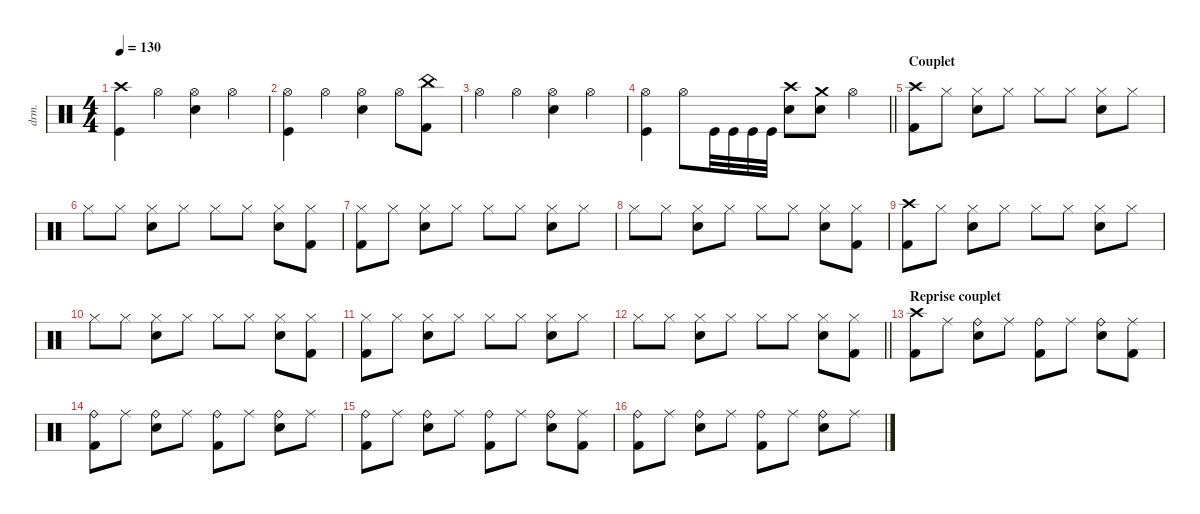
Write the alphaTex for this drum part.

\defaultSystemsLayout 4
\hideDynamics
\bracketExtendMode nobrackets
\otherSystemsTrackNameOrientation horizontal
\track ("Manouche" "drm.") {instrument percussion}
\staff {score}
\articulation defaults
\ts (4 4)
\tempo 130
\clef neutral
\ks c
("Crash high (hit)" "Kick (hit)").4{dy f beam Down} "Hi-Hat (open)".4{beam Down} ("Hi-Hat (open)" "Snare (hit) 2").4{beam Down} "Hi-Hat (open)".4{beam Down} |
("Hi-Hat (open)" "Kick (hit)").4{beam Down} "Hi-Hat (open)".4{beam Down} ("Hi-Hat (open)" "Snare (hit) 2").4{beam Down} "Hi-Hat (open)".8{beam Down} ("China (hit)" "Kick (hit) 2").8{beam Down} |
"Hi-Hat (open)".4{beam Down} "Hi-Hat (open)".4{beam Down} ("Hi-Hat (open)" "Snare (hit) 2").4{beam Down} "Hi-Hat (open)".4{beam Down} |
\barLineRight lightlight
("Hi-Hat (open)" "Kick (hit)").4{beam Down} "Hi-Hat (open)".8{beam Down} "Kick (hit)".32{beam Down} "Kick (hit)".32{beam Down} "Kick (hit)".32{beam Down} "Kick (hit)".32{beam Down} ("Snare (hit) 2" "Crash high (hit)").8{beam Down} ("Crash medium (hit)" "Snare (hit) 2").8{beam Down} "Hi-Hat (open)".4{beam Down} |
\section ("" "Couplet")
("Crash high (hit)" "Kick (hit) 2").8{beam Down} "Hi-Hat (closed)".8{dy mp beam Down} ("Hi-Hat (closed)" "Snare (hit) 2").8{dy f beam Down} "Hi-Hat (closed)".8{dy mp beam Down} "Hi-Hat (closed)".8{dy f beam Down} "Hi-Hat (closed)".8{dy mp beam Down} ("Hi-Hat (closed)" "Snare (hit) 2").8{dy f beam Down} "Hi-Hat (closed)".8{dy mp beam Down} |
"Hi-Hat (closed)".8{dy f beam Down} "Hi-Hat (closed)".8{dy mp beam Down} ("Hi-Hat (closed)" "Snare (hit) 2").8{dy f beam Down} "Hi-Hat (closed)".8{dy mp beam Down} "Hi-Hat (closed)".8{dy f beam Down} "Hi-Hat (closed)".8{dy mp beam Down} ("Hi-Hat (closed)" "Snare (hit) 2").8{dy f beam Down} ("Hi-Hat (closed)" "Kick (hit) 2").8{dy mp beam Down} |
("Hi-Hat (closed)" "Kick (hit) 2").8{beam Down} "Hi-Hat (closed)".8{beam Down} ("Hi-Hat (closed)" "Snare (hit) 2").8{dy f beam Down} "Hi-Hat (closed)".8{dy mp beam Down} "Hi-Hat (closed)".8{dy f beam Down} "Hi-Hat (closed)".8{dy mp beam Down} ("Hi-Hat (closed)" "Snare (hit) 2").8{dy f beam Down} "Hi-Hat (closed)".8{dy mp beam Down} |
"Hi-Hat (closed)".8{dy f beam Down} "Hi-Hat (closed)".8{dy mp beam Down} ("Hi-Hat (closed)" "Snare (hit) 2").8{dy f beam Down} "Hi-Hat (closed)".8{dy mp beam Down} "Hi-Hat (closed)".8{dy f beam Down} "Hi-Hat (closed)".8{dy mp beam Down} ("Hi-Hat (closed)" "Snare (hit) 2").8{dy f beam Down} ("Hi-Hat (closed)" "Kick (hit) 2").8{dy mp beam Down} |
("Crash high (hit)" "Kick (hit) 2").8{dy f beam Down} "Hi-Hat (closed)".8{dy mp beam Down} ("Hi-Hat (closed)" "Snare (hit) 2").8{dy f beam Down} "Hi-Hat (closed)".8{dy mp beam Down} "Hi-Hat (closed)".8{dy f beam Down} "Hi-Hat (closed)".8{dy mp beam Down} ("Hi-Hat (closed)" "Snare (hit) 2").8{dy f beam Down} "Hi-Hat (closed)".8{dy mp beam Down} |
"Hi-Hat (closed)".8{dy f beam Down} "Hi-Hat (closed)".8{dy mp beam Down} ("Hi-Hat (closed)" "Snare (hit) 2").8{dy f beam Down} "Hi-Hat (closed)".8{dy mp beam Down} "Hi-Hat (closed)".8{dy f beam Down} "Hi-Hat (closed)".8{dy mp beam Down} ("Hi-Hat (closed)" "Snare (hit) 2").8{dy f beam Down} ("Hi-Hat (closed)" "Kick (hit) 2").8{dy mp beam Down} |
("Hi-Hat (closed)" "Kick (hit) 2").8{beam Down} "Hi-Hat (closed)".8{beam Down} ("Hi-Hat (closed)" "Snare (hit) 2").8{dy f beam Down} "Hi-Hat (closed)".8{dy mp beam Down} "Hi-Hat (closed)".8{dy f beam Down} "Hi-Hat (closed)".8{dy mp beam Down} ("Hi-Hat (closed)" "Snare (hit) 2").8{dy f beam Down} "Hi-Hat (closed)".8{dy mp beam Down} |
\barLineRight lightlight "Hi-Hat (closed)".8{dy f beam Down} "Hi-Hat (closed)".8{dy mp beam Down}
("Hi-Hat (closed)" "Snare (hit) 2").8{dy f beam Down} "Hi-Hat (closed)".8{dy mp beam Down} "Hi-Hat (closed)".8{dy f beam Down} "Hi-Hat (closed)".8{dy mp beam Down} ("Hi-Hat (closed)" "Snare (hit) 2").8{dy f beam Down} ("Hi-Hat (closed)" "Kick (hit) 2").8{dy mp beam Down} |
\section ("" "Reprise couplet")
("Crash high (hit)" "Kick (hit) 2").8{dy f beam Down} "Ride (middle)".8{dy mf beam Down} ("Ride (bell)" "Snare (hit) 2").8{dy f beam Down} "Ride (middle)".8{dy mf beam Down} ("Ride (bell)" "Kick (hit) 2").8{dy f beam Down} "Ride (middle)".8{dy mf beam Down} ("Ride (bell)" "Snare (hit) 2").8{dy f beam Down} ("Ride (middle)" "Kick (hit) 2").8{dy mf beam Down} |
("Ride (bell)" "Kick (hit) 2").8{dy f beam Down} "Ride (middle)".8{dy mf beam Down} ("Ride (bell)" "Snare (hit) 2").8{dy f beam Down} "Ride (middle)".8{dy mf beam Down} ("Ride (bell)" "Kick (hit) 2").8{dy f beam Down} "Ride (middle)".8{dy mf beam Down} ("Ride (bell)" "Snare (hit) 2").8{dy f beam Down} "Ride (middle)".8{dy mf beam Down} |
("Ride (bell)" "Kick (hit) 2").8{dy f beam Down} "Ride (middle)".8{dy mf beam Down} ("Ride (bell)" "Snare (hit) 2").8{dy f beam Down} "Ride (middle)".8{dy mf beam Down} ("Ride (bell)" "Kick (hit) 2").8{dy f beam Down} "Ride (middle)".8{dy mf beam Down} ("Ride (bell)" "Snare (hit) 2").8{dy f beam Down} ("Ride (middle)" "Kick (hit) 2").8{dy mf beam Down} |
("Ride (bell)" "Kick (hit) 2").8{dy f beam Down} "Ride (middle)".8{dy mf beam Down} ("Ride (bell)" "Snare (hit) 2").8{dy f beam Down} "Ride (middle)".8{dy mf beam Down} ("Ride (bell)" "Kick (hit) 2").8{dy f beam Down} "Ride (middle)".8{dy mf beam Down} ("Ride (bell)" "Snare (hit) 2").8{dy f beam Down} "Ride (middle)".8{dy mf beam Down}
